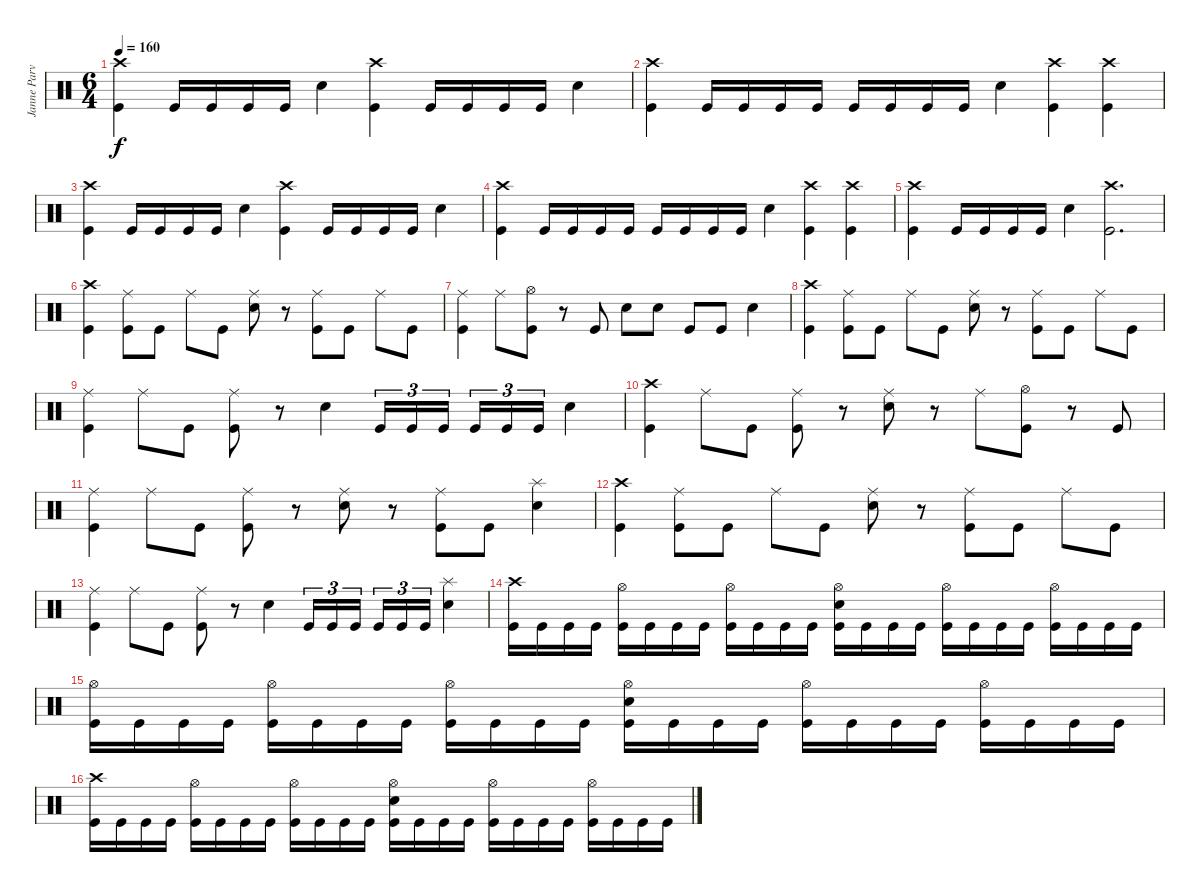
\track ("Janne Parviainen" "Janne Parv") {instrument percussion}
\staff {score}
\articulation defaults
\ts (6 4)
\tempo 160
\clef neutral
\ks c
("Crash high (hit)" "Kick (hit)").4{dy f} "Kick (hit)".16 "Kick (hit)".16 "Kick (hit)".16 "Kick (hit)".16 "Electric Snare (hit)".4 ("Crash high (hit)" "Kick (hit)").4 "Kick (hit)".16 "Kick (hit)".16 "Kick (hit)".16 "Kick (hit)".16 "Electric Snare (hit)".4 |
("Crash high (hit)" "Kick (hit)").4 "Kick (hit)".16 "Kick (hit)".16 "Kick (hit)".16 "Kick (hit)".16 "Kick (hit)".16 "Kick (hit)".16 "Kick (hit)".16 "Kick (hit)".16 "Electric Snare (hit)".4 ("Crash high (hit)" "Kick (hit)").4 ("Crash high (hit)" "Kick (hit)").4 |
("Crash high (hit)" "Kick (hit)").4 "Kick (hit)".16 "Kick (hit)".16 "Kick (hit)".16 "Kick (hit)".16 "Electric Snare (hit)".4 ("Crash high (hit)" "Kick (hit)").4 "Kick (hit)".16 "Kick (hit)".16 "Kick (hit)".16 "Kick (hit)".16 "Electric Snare (hit)".4 |
("Crash high (hit)" "Kick (hit)").4 "Kick (hit)".16 "Kick (hit)".16 "Kick (hit)".16 "Kick (hit)".16 "Kick (hit)".16 "Kick (hit)".16 "Kick (hit)".16 "Kick (hit)".16 "Electric Snare (hit)".4 ("Crash high (hit)" "Kick (hit)").4 ("Crash high (hit)" "Kick (hit)").4 |
("Crash high (hit)" "Kick (hit)").4 "Kick (hit)".16 "Kick (hit)".16 "Kick (hit)".16 "Kick (hit)".16 "Electric Snare (hit)".4 ("Crash high (hit)" "Kick (hit)").2{d} |
("Crash high (hit)" "Kick (hit)").4 ("Ride (middle)" "Kick (hit)").8 "Kick (hit)".8 "Ride (middle)".8 "Kick (hit)".8 ("Ride (middle)" "Electric Snare (hit)").8 r.8 ("Ride (middle)" "Kick (hit)").8 "Kick (hit)".8 "Ride (middle)".8 "Kick (hit)".8 |
("Ride (middle)" "Kick (hit)").4 "Ride (middle)".8 ("Hi-Hat (open)" "Kick (hit)").8 r.8 "Kick (hit)".8 "Electric Snare (hit)".8 "Electric Snare (hit)".8 "Kick (hit)".8 "Kick (hit)".8 "Electric Snare (hit)".4 |
("Crash high (hit)" "Kick (hit)").4 ("Ride (middle)" "Kick (hit)").8 "Kick (hit)".8 "Ride (middle)".8 "Kick (hit)".8 ("Ride (middle)" "Electric Snare (hit)").8 r.8 ("Ride (middle)" "Kick (hit)").8 "Kick (hit)".8 "Ride (middle)".8 "Kick (hit)".8 |
("Ride (middle)" "Kick (hit)").4 "Ride (middle)".8 "Kick (hit)".8 ("Ride (middle)" "Kick (hit)").8 r.8 "Electric Snare (hit)".4 "Kick (hit)".16{tu (3 2)} "Kick (hit)".16{tu (3 2)} "Kick (hit)".16{tu (3 2) beam splitsecondary} "Kick (hit)".16{tu (3 2)} "Kick (hit)".16{tu (3 2)} "Kick (hit)".16{tu (3 2)} "Electric Snare (hit)".4 |
("Crash high (hit)" "Kick (hit)").4 "Ride (middle)".8 "Kick (hit)".8 ("Ride (middle)" "Kick (hit)").8 r.8 ("Ride (middle)" "Electric Snare (hit)").8 r.8 "Ride (middle)".8 ("Hi-Hat (open)" "Kick (hit)").8 r.8 "Kick (hit)".8 |
("Ride (middle)" "Kick (hit)").4 "Ride (middle)".8 "Kick (hit)".8 ("Ride (middle)" "Kick (hit)").8 r.8 ("Ride (middle)" "Electric Snare (hit)").8 r.8 ("Ride (middle)" "Kick (hit)").8 "Kick (hit)".8 ("Splash (hit)" "Electric Snare (hit)").4 |
("Crash high (hit)" "Kick (hit)").4 ("Ride (middle)" "Kick (hit)").8 "Kick (hit)".8 "Ride (middle)".8 "Kick (hit)".8 ("Ride (middle)" "Electric Snare (hit)").8 r.8 ("Ride (middle)" "Kick (hit)").8 "Kick (hit)".8 "Ride (middle)".8 "Kick (hit)".8 |
("Ride (middle)" "Kick (hit)").4 "Ride (middle)".8 "Kick (hit)".8 ("Ride (middle)" "Kick (hit)").8 r.8 "Electric Snare (hit)".4 "Kick (hit)".16{tu (3 2)} "Kick (hit)".16{tu (3 2)} "Kick (hit)".16{tu (3 2) beam splitsecondary} "Kick (hit)".16{tu (3 2)} "Kick (hit)".16{tu (3 2)} "Kick (hit)".16{tu (3 2)} ("Splash (hit)" "Electric Snare (hit)").4 |
("Crash high (hit)" "Kick (hit)").16 "Kick (hit)".16 "Kick (hit)".16 "Kick (hit)".16 ("Hi-Hat (open)" "Kick (hit)").16 "Kick (hit)".16 "Kick (hit)".16 "Kick (hit)".16 ("Hi-Hat (open)" "Kick (hit)").16 "Kick (hit)".16 "Kick (hit)".16 "Kick (hit)".16 ("Hi-Hat (open)" "Electric Snare (hit)" "Kick (hit)").16 "Kick (hit)".16 "Kick (hit)".16 "Kick (hit)".16 ("Hi-Hat (open)" "Kick (hit)").16 "Kick (hit)".16 "Kick (hit)".16 "Kick (hit)".16 ("Hi-Hat (open)" "Kick (hit)").16 "Kick (hit)".16 "Kick (hit)".16 "Kick (hit)".16 |
("Hi-Hat (open)" "Kick (hit)").16 "Kick (hit)".16 "Kick (hit)".16 "Kick (hit)".16 ("Hi-Hat (open)" "Kick (hit)").16 "Kick (hit)".16 "Kick (hit)".16 "Kick (hit)".16 ("Hi-Hat (open)" "Kick (hit)").16 "Kick (hit)".16 "Kick (hit)".16 "Kick (hit)".16 ("Hi-Hat (open)" "Electric Snare (hit)" "Kick (hit)").16 "Kick (hit)".16 "Kick (hit)".16 "Kick (hit)".16 ("Hi-Hat (open)" "Kick (hit)").16 "Kick (hit)".16 "Kick (hit)".16 "Kick (hit)".16 ("Hi-Hat (open)" "Kick (hit)").16 "Kick (hit)".16 "Kick (hit)".16 "Kick (hit)".16 |
("Crash high (hit)" "Kick (hit)").16 "Kick (hit)".16 "Kick (hit)".16 "Kick (hit)".16 ("Hi-Hat (open)" "Kick (hit)").16 "Kick (hit)".16 "Kick (hit)".16 "Kick (hit)".16 ("Hi-Hat (open)" "Kick (hit)").16 "Kick (hit)".16 "Kick (hit)".16 "Kick (hit)".16 ("Hi-Hat (open)" "Electric Snare (hit)" "Kick (hit)").16 "Kick (hit)".16 "Kick (hit)".16 "Kick (hit)".16 ("Hi-Hat (open)" "Kick (hit)").16 "Kick (hit)".16 "Kick (hit)".16 "Kick (hit)".16 ("Hi-Hat (open)" "Kick (hit)").16 "Kick (hit)".16 "Kick (hit)".16 "Kick (hit)".16
